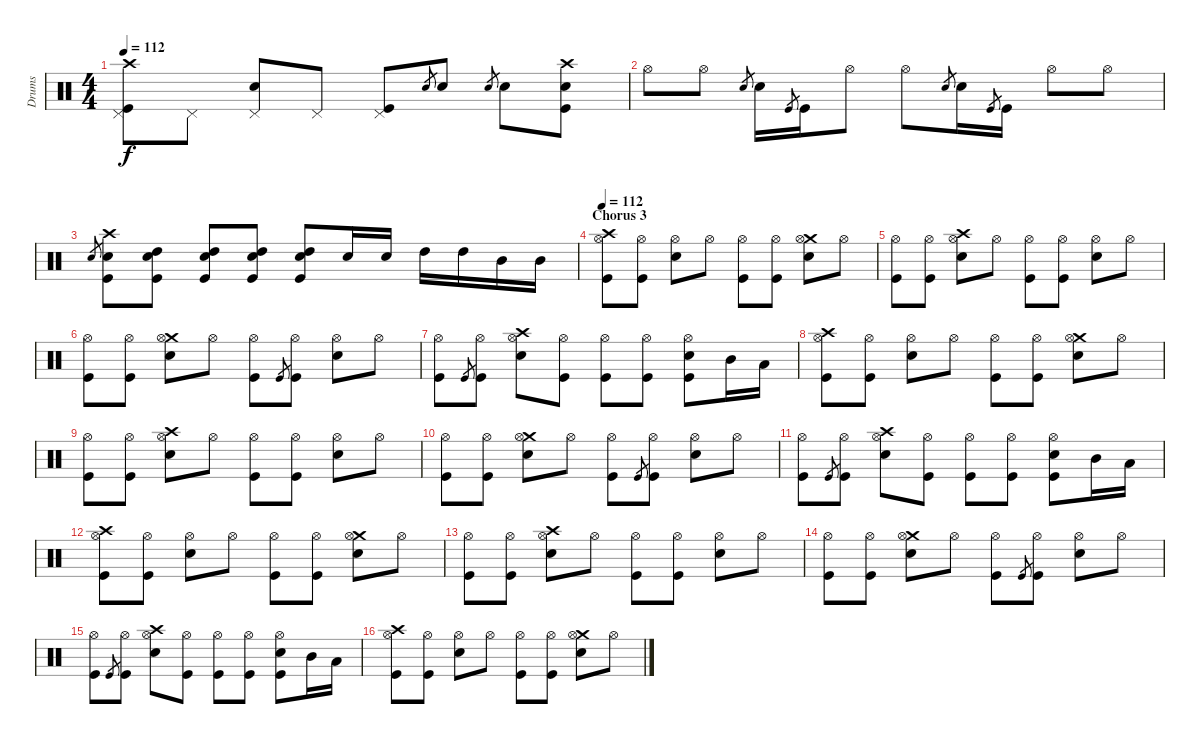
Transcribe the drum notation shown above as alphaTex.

\track ("Drums" "Drums") {instrument percussion}
\staff {score}
\articulation defaults
\ts (4 4)
\tempo 112
\clef neutral
\ks c
("Crash high (hit)" "Pedal Hi-Hat (hit)" "Kick (hit)").8{dy f} "Pedal Hi-Hat (hit)".8 ("Pedal Hi-Hat (hit)" "Snare (hit) 2").8 "Pedal Hi-Hat (hit)".8 ("Pedal Hi-Hat (hit)" "Kick (hit)").8 "Snare (hit) 2".8{gr} "Snare (hit) 2".8 "Snare (hit) 2".8{gr} "Snare (hit) 2".8 ("Crash high (hit)" "Snare (hit) 2" "Kick (hit)").8 |
"Hi-Hat (open)".8 "Hi-Hat (open)".8 "Snare (hit) 2".8{gr} "Snare (hit) 2".16 "Kick (hit)".8{gr} "Kick (hit)".16 "Hi-Hat (open)".8 "Hi-Hat (open)".8 "Snare (hit) 2".8{gr} "Snare (hit) 2".16 "Kick (hit)".8{gr} "Kick (hit)".16 "Hi-Hat (open)".8 "Hi-Hat (open)".8 |
"Snare (hit) 2"{h}.8{gr} ("Crash high (hit)" "Snare (hit) 2" "Kick (hit)").8 ("Snare (hit) 2" "High Tom (hit)" "Kick (hit)").8 ("Snare (hit) 2" "High Tom (hit)" "Kick (hit)").8 ("Snare (hit) 2" "High Tom (hit)" "Kick (hit)").8 ("Snare (hit) 2" "High Tom (hit)" "Kick (hit)").8 "Snare (hit) 2".16 "Snare (hit) 2".16 "High Tom (hit)".16 "High Tom (hit)".16 "Mid Tom (hit)".16 "Mid Tom (hit)".16 |
\section ("" "Chorus 3")
\tempo 112
("Crash high (hit)" "Hi-Hat (open)" "Kick (hit)").8{volume 16} ("Hi-Hat (open)" "Kick (hit)").8 ("Hi-Hat (open)" "Snare (hit) 2").8 "Hi-Hat (open)".8 ("Hi-Hat (open)" "Kick (hit)").8 ("Hi-Hat (open)" "Kick (hit)").8 ("Crash medium (hit)" "Hi-Hat (open)" "Snare (hit) 2").8 "Hi-Hat (open)".8 |
("Hi-Hat (open)" "Kick (hit)").8 ("Hi-Hat (open)" "Kick (hit)").8 ("Crash high (hit)" "Hi-Hat (open)" "Snare (hit) 2").8 "Hi-Hat (open)".8 ("Hi-Hat (open)" "Kick (hit)").8 ("Hi-Hat (open)" "Kick (hit)").8 ("Hi-Hat (open)" "Snare (hit) 2").8 "Hi-Hat (open)".8 |
("Hi-Hat (open)" "Kick (hit)").8 ("Hi-Hat (open)" "Kick (hit)").8 ("Crash medium (hit)" "Hi-Hat (open)" "Snare (hit) 2").8 "Hi-Hat (open)".8 ("Hi-Hat (open)" "Kick (hit)").8 "Kick (hit)".8{gr} ("Hi-Hat (open)" "Kick (hit)").8 ("Hi-Hat (open)" "Snare (hit) 2").8 "Hi-Hat (open)".8 |
("Hi-Hat (open)" "Kick (hit)").8 "Kick (hit)".8{gr} ("Hi-Hat (open)" "Kick (hit)").8 ("Crash high (hit)" "Hi-Hat (open)" "Snare (hit) 2").8 ("Hi-Hat (open)" "Kick (hit)").8 ("Hi-Hat (open)" "Kick (hit)").8 ("Hi-Hat (open)" "Kick (hit)").8 ("Hi-Hat (open)" "Snare (hit) 2" "Kick (hit)").8 "Mid Tom (hit)".16 "Low Tom (hit)".16 |
("Crash high (hit)" "Hi-Hat (open)" "Kick (hit)").8 ("Hi-Hat (open)" "Kick (hit)").8 ("Hi-Hat (open)" "Snare (hit) 2").8 "Hi-Hat (open)".8 ("Hi-Hat (open)" "Kick (hit)").8 ("Hi-Hat (open)" "Kick (hit)").8 ("Crash medium (hit)" "Hi-Hat (open)" "Snare (hit) 2").8 "Hi-Hat (open)".8 |
("Hi-Hat (open)" "Kick (hit)").8 ("Hi-Hat (open)" "Kick (hit)").8 ("Crash high (hit)" "Hi-Hat (open)" "Snare (hit) 2").8 "Hi-Hat (open)".8 ("Hi-Hat (open)" "Kick (hit)").8 ("Hi-Hat (open)" "Kick (hit)").8 ("Hi-Hat (open)" "Snare (hit) 2").8 "Hi-Hat (open)".8 |
("Hi-Hat (open)" "Kick (hit)").8 ("Hi-Hat (open)" "Kick (hit)").8 ("Crash medium (hit)" "Hi-Hat (open)" "Snare (hit) 2").8 "Hi-Hat (open)".8 ("Hi-Hat (open)" "Kick (hit)").8 "Kick (hit)".8{gr} ("Hi-Hat (open)" "Kick (hit)").8 ("Hi-Hat (open)" "Snare (hit) 2").8 "Hi-Hat (open)".8 |
("Hi-Hat (open)" "Kick (hit)").8 "Kick (hit)".8{gr} ("Hi-Hat (open)" "Kick (hit)").8 ("Crash high (hit)" "Hi-Hat (open)" "Snare (hit) 2").8 ("Hi-Hat (open)" "Kick (hit)").8 ("Hi-Hat (open)" "Kick (hit)").8 ("Hi-Hat (open)" "Kick (hit)").8 ("Hi-Hat (open)" "Snare (hit) 2" "Kick (hit)").8 "Mid Tom (hit)".16 "Low Tom (hit)".16 |
("Crash high (hit)" "Hi-Hat (open)" "Kick (hit)").8 ("Hi-Hat (open)" "Kick (hit)").8 ("Hi-Hat (open)" "Snare (hit) 2").8 "Hi-Hat (open)".8 ("Hi-Hat (open)" "Kick (hit)").8 ("Hi-Hat (open)" "Kick (hit)").8 ("Crash medium (hit)" "Hi-Hat (open)" "Snare (hit) 2").8 "Hi-Hat (open)".8 |
("Hi-Hat (open)" "Kick (hit)").8 ("Hi-Hat (open)" "Kick (hit)").8 ("Crash high (hit)" "Hi-Hat (open)" "Snare (hit) 2").8 "Hi-Hat (open)".8 ("Hi-Hat (open)" "Kick (hit)").8 ("Hi-Hat (open)" "Kick (hit)").8 ("Hi-Hat (open)" "Snare (hit) 2").8 "Hi-Hat (open)".8 |
("Hi-Hat (open)" "Kick (hit)").8 ("Hi-Hat (open)" "Kick (hit)").8 ("Crash medium (hit)" "Hi-Hat (open)" "Snare (hit) 2").8 "Hi-Hat (open)".8 ("Hi-Hat (open)" "Kick (hit)").8 "Kick (hit)".8{gr} ("Hi-Hat (open)" "Kick (hit)").8 ("Hi-Hat (open)" "Snare (hit) 2").8 "Hi-Hat (open)".8 |
("Hi-Hat (open)" "Kick (hit)").8 "Kick (hit)".8{gr} ("Hi-Hat (open)" "Kick (hit)").8 ("Crash high (hit)" "Hi-Hat (open)" "Snare (hit) 2").8 ("Hi-Hat (open)" "Kick (hit)").8 ("Hi-Hat (open)" "Kick (hit)").8 ("Hi-Hat (open)" "Kick (hit)").8 ("Hi-Hat (open)" "Snare (hit) 2" "Kick (hit)").8 "Mid Tom (hit)".16 "Low Tom (hit)".16 |
("Crash high (hit)" "Hi-Hat (open)" "Kick (hit)").8 ("Hi-Hat (open)" "Kick (hit)").8 ("Hi-Hat (open)" "Snare (hit) 2").8 "Hi-Hat (open)".8 ("Hi-Hat (open)" "Kick (hit)").8 ("Hi-Hat (open)" "Kick (hit)").8 ("Crash medium (hit)" "Hi-Hat (open)" "Snare (hit) 2").8 "Hi-Hat (open)".8
